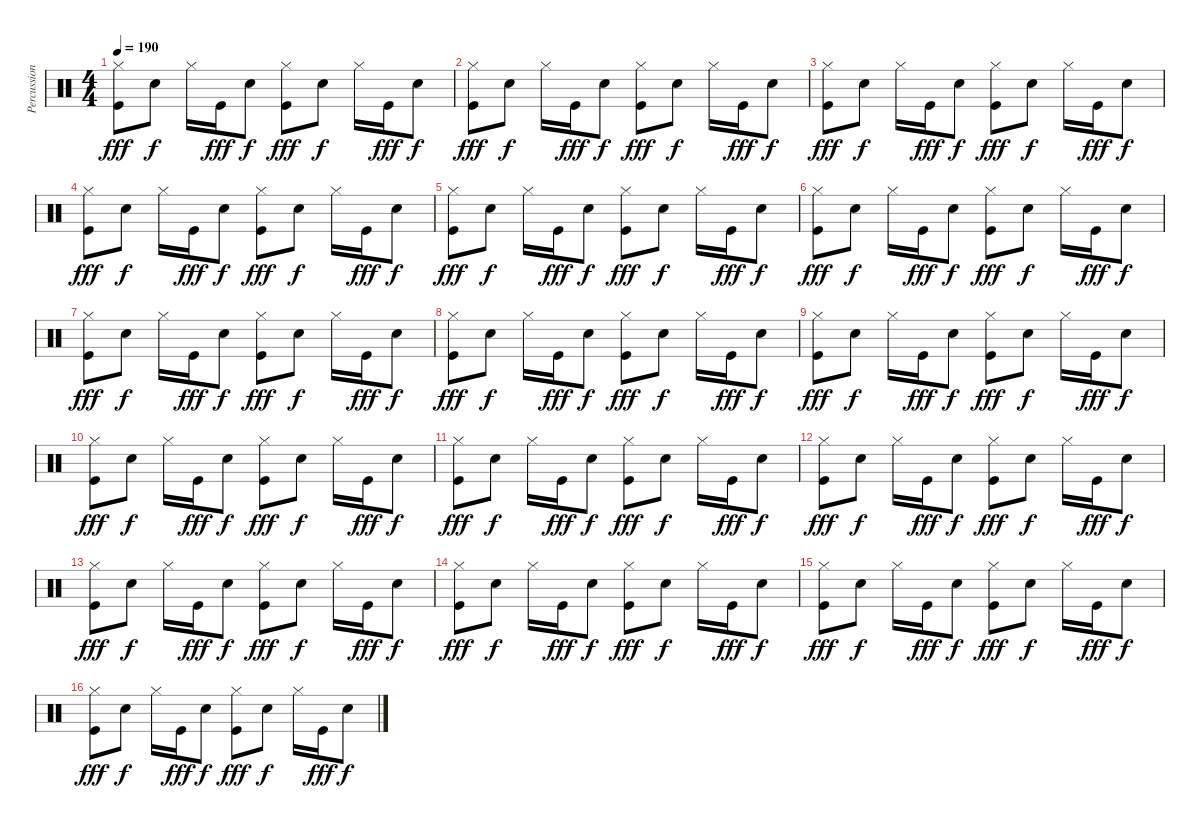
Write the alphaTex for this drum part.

\track ("Percussioni" "Percussion") {instrument percussion}
\staff {score}
\articulation defaults
\ts (4 4)
\tempo 190
\clef neutral
\ks c
("Kick (hit)" "Hi-Hat (closed)").8{dy fff} "Snare (hit) 2".8{dy f} "Hi-Hat (closed)".16 "Kick (hit)".16{dy fff} "Snare (hit) 2".8{dy f} ("Kick (hit)" "Hi-Hat (closed)").8{dy fff} "Snare (hit) 2".8{dy f} "Hi-Hat (closed)".16 "Kick (hit)".16{dy fff} "Snare (hit) 2".8{dy f} |
("Kick (hit)" "Hi-Hat (closed)").8{dy fff} "Snare (hit) 2".8{dy f} "Hi-Hat (closed)".16 "Kick (hit)".16{dy fff} "Snare (hit) 2".8{dy f} ("Kick (hit)" "Hi-Hat (closed)").8{dy fff} "Snare (hit) 2".8{dy f} "Hi-Hat (closed)".16 "Kick (hit)".16{dy fff} "Snare (hit) 2".8{dy f} |
("Kick (hit)" "Hi-Hat (closed)").8{dy fff} "Snare (hit) 2".8{dy f} "Hi-Hat (closed)".16 "Kick (hit)".16{dy fff} "Snare (hit) 2".8{dy f} ("Kick (hit)" "Hi-Hat (closed)").8{dy fff} "Snare (hit) 2".8{dy f} "Hi-Hat (closed)".16 "Kick (hit)".16{dy fff} "Snare (hit) 2".8{dy f} |
("Kick (hit)" "Hi-Hat (closed)").8{dy fff} "Snare (hit) 2".8{dy f} "Hi-Hat (closed)".16 "Kick (hit)".16{dy fff} "Snare (hit) 2".8{dy f} ("Kick (hit)" "Hi-Hat (closed)").8{dy fff} "Snare (hit) 2".8{dy f} "Hi-Hat (closed)".16 "Kick (hit)".16{dy fff} "Snare (hit) 2".8{dy f} |
("Kick (hit)" "Hi-Hat (closed)").8{dy fff} "Snare (hit) 2".8{dy f} "Hi-Hat (closed)".16 "Kick (hit)".16{dy fff} "Snare (hit) 2".8{dy f} ("Kick (hit)" "Hi-Hat (closed)").8{dy fff} "Snare (hit) 2".8{dy f} "Hi-Hat (closed)".16 "Kick (hit)".16{dy fff} "Snare (hit) 2".8{dy f} |
("Kick (hit)" "Hi-Hat (closed)").8{dy fff} "Snare (hit) 2".8{dy f} "Hi-Hat (closed)".16 "Kick (hit)".16{dy fff} "Snare (hit) 2".8{dy f} ("Kick (hit)" "Hi-Hat (closed)").8{dy fff} "Snare (hit) 2".8{dy f} "Hi-Hat (closed)".16 "Kick (hit)".16{dy fff} "Snare (hit) 2".8{dy f} |
("Kick (hit)" "Hi-Hat (closed)").8{dy fff} "Snare (hit) 2".8{dy f} "Hi-Hat (closed)".16 "Kick (hit)".16{dy fff} "Snare (hit) 2".8{dy f} ("Kick (hit)" "Hi-Hat (closed)").8{dy fff} "Snare (hit) 2".8{dy f} "Hi-Hat (closed)".16 "Kick (hit)".16{dy fff} "Snare (hit) 2".8{dy f} |
("Kick (hit)" "Hi-Hat (closed)").8{dy fff} "Snare (hit) 2".8{dy f} "Hi-Hat (closed)".16 "Kick (hit)".16{dy fff} "Snare (hit) 2".8{dy f} ("Kick (hit)" "Hi-Hat (closed)").8{dy fff} "Snare (hit) 2".8{dy f} "Hi-Hat (closed)".16 "Kick (hit)".16{dy fff} "Snare (hit) 2".8{dy f} |
("Kick (hit)" "Hi-Hat (closed)").8{dy fff} "Snare (hit) 2".8{dy f} "Hi-Hat (closed)".16 "Kick (hit)".16{dy fff} "Snare (hit) 2".8{dy f} ("Kick (hit)" "Hi-Hat (closed)").8{dy fff} "Snare (hit) 2".8{dy f} "Hi-Hat (closed)".16 "Kick (hit)".16{dy fff} "Snare (hit) 2".8{dy f} |
("Kick (hit)" "Hi-Hat (closed)").8{dy fff} "Snare (hit) 2".8{dy f} "Hi-Hat (closed)".16 "Kick (hit)".16{dy fff} "Snare (hit) 2".8{dy f} ("Kick (hit)" "Hi-Hat (closed)").8{dy fff} "Snare (hit) 2".8{dy f} "Hi-Hat (closed)".16 "Kick (hit)".16{dy fff} "Snare (hit) 2".8{dy f} |
("Kick (hit)" "Hi-Hat (closed)").8{dy fff} "Snare (hit) 2".8{dy f} "Hi-Hat (closed)".16 "Kick (hit)".16{dy fff} "Snare (hit) 2".8{dy f} ("Kick (hit)" "Hi-Hat (closed)").8{dy fff} "Snare (hit) 2".8{dy f} "Hi-Hat (closed)".16 "Kick (hit)".16{dy fff} "Snare (hit) 2".8{dy f} |
("Kick (hit)" "Hi-Hat (closed)").8{dy fff} "Snare (hit) 2".8{dy f} "Hi-Hat (closed)".16 "Kick (hit)".16{dy fff} "Snare (hit) 2".8{dy f} ("Kick (hit)" "Hi-Hat (closed)").8{dy fff} "Snare (hit) 2".8{dy f} "Hi-Hat (closed)".16 "Kick (hit)".16{dy fff} "Snare (hit) 2".8{dy f} |
("Kick (hit)" "Hi-Hat (closed)").8{dy fff} "Snare (hit) 2".8{dy f} "Hi-Hat (closed)".16 "Kick (hit)".16{dy fff} "Snare (hit) 2".8{dy f} ("Kick (hit)" "Hi-Hat (closed)").8{dy fff} "Snare (hit) 2".8{dy f} "Hi-Hat (closed)".16 "Kick (hit)".16{dy fff} "Snare (hit) 2".8{dy f} |
("Kick (hit)" "Hi-Hat (closed)").8{dy fff} "Snare (hit) 2".8{dy f} "Hi-Hat (closed)".16 "Kick (hit)".16{dy fff} "Snare (hit) 2".8{dy f} ("Kick (hit)" "Hi-Hat (closed)").8{dy fff} "Snare (hit) 2".8{dy f} "Hi-Hat (closed)".16 "Kick (hit)".16{dy fff} "Snare (hit) 2".8{dy f} |
("Kick (hit)" "Hi-Hat (closed)").8{dy fff} "Snare (hit) 2".8{dy f} "Hi-Hat (closed)".16 "Kick (hit)".16{dy fff} "Snare (hit) 2".8{dy f} ("Kick (hit)" "Hi-Hat (closed)").8{dy fff} "Snare (hit) 2".8{dy f} "Hi-Hat (closed)".16 "Kick (hit)".16{dy fff} "Snare (hit) 2".8{dy f} |
("Kick (hit)" "Hi-Hat (closed)").8{dy fff} "Snare (hit) 2".8{dy f} "Hi-Hat (closed)".16 "Kick (hit)".16{dy fff} "Snare (hit) 2".8{dy f} ("Kick (hit)" "Hi-Hat (closed)").8{dy fff} "Snare (hit) 2".8{dy f} "Hi-Hat (closed)".16 "Kick (hit)".16{dy fff} "Snare (hit) 2".8{dy f}
